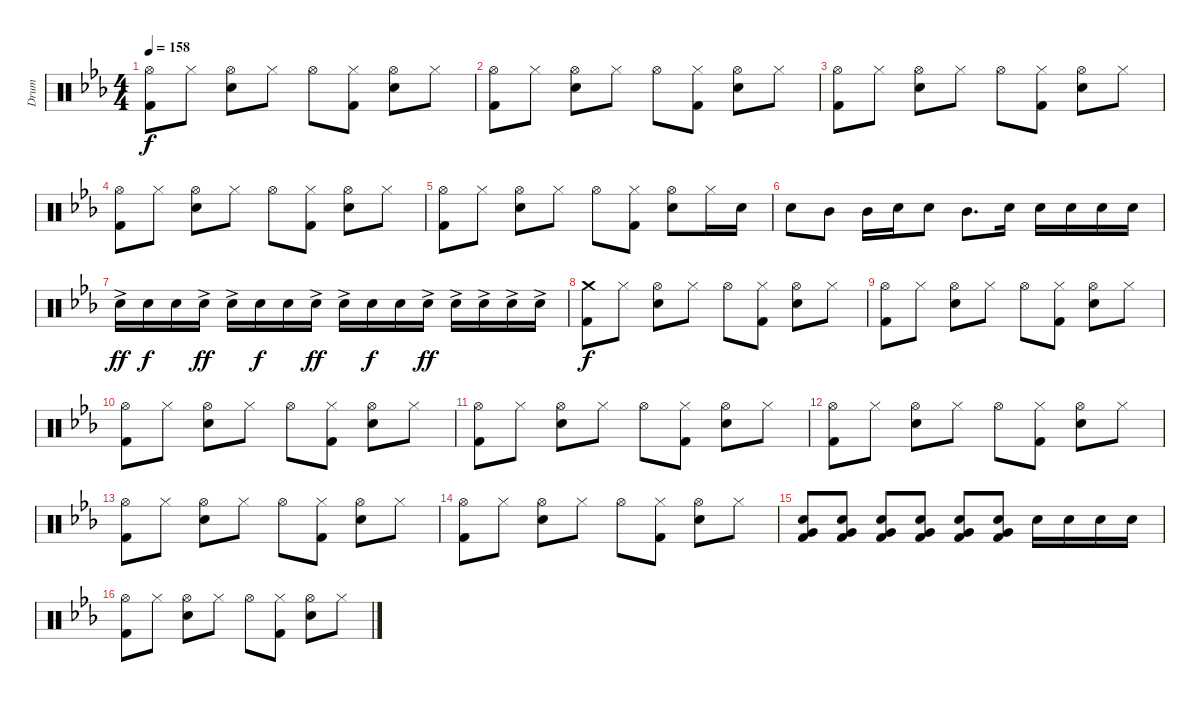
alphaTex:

\track ("Drum" "Drum") {instrument percussion}
\staff {score}
\articulation defaults
\ts (4 4)
\tempo 158
\clef neutral
\ks eb
("Hi-Hat (open)" "Kick (hit) 2").8{dy f} "Hi-Hat (closed)".8 ("Hi-Hat (open)" "Electric Snare (hit)").8 "Hi-Hat (closed)".8 "Hi-Hat (open)".8 ("Hi-Hat (closed)" "Kick (hit) 2").8 ("Hi-Hat (open)" "Electric Snare (hit)").8 "Hi-Hat (closed)".8 |
("Hi-Hat (open)" "Kick (hit) 2").8 "Hi-Hat (closed)".8 ("Hi-Hat (open)" "Electric Snare (hit)").8 "Hi-Hat (closed)".8 "Hi-Hat (open)".8 ("Hi-Hat (closed)" "Kick (hit) 2").8 ("Hi-Hat (open)" "Electric Snare (hit)").8 "Hi-Hat (closed)".8 |
("Hi-Hat (open)" "Kick (hit) 2").8 "Hi-Hat (closed)".8 ("Hi-Hat (open)" "Electric Snare (hit)").8 "Hi-Hat (closed)".8 "Hi-Hat (open)".8 ("Hi-Hat (closed)" "Kick (hit) 2").8 ("Hi-Hat (open)" "Electric Snare (hit)").8 "Hi-Hat (closed)".8 |
("Hi-Hat (open)" "Kick (hit) 2").8 "Hi-Hat (closed)".8 ("Hi-Hat (open)" "Electric Snare (hit)").8 "Hi-Hat (closed)".8 "Hi-Hat (open)".8 ("Hi-Hat (closed)" "Kick (hit) 2").8 ("Hi-Hat (open)" "Electric Snare (hit)").8 "Hi-Hat (closed)".8 |
("Hi-Hat (open)" "Kick (hit) 2").8 "Hi-Hat (closed)".8 ("Hi-Hat (open)" "Electric Snare (hit)").8 "Hi-Hat (closed)".8 "Hi-Hat (open)".8 ("Hi-Hat (closed)" "Kick (hit) 2").8 ("Hi-Hat (open)" "Electric Snare (hit)").8 "Hi-Hat (closed)".16 "Electric Snare (hit)".16 |
"Electric Snare (hit)".8 "Mid Tom (hit)".8 "Mid Tom (hit)".16 "Electric Snare (hit)".16 "Electric Snare (hit)".8 "Mid Tom (hit)".8{d} "Electric Snare (hit)".16 "Electric Snare (hit)".16 "Electric Snare (hit)".16 "Electric Snare (hit)".16 "Electric Snare (hit)".16 |
"Electric Snare (hit)"{ac}.16{dy ff} "Electric Snare (hit)".16{dy f} "Electric Snare (hit)".16 "Electric Snare (hit)"{ac}.16{dy ff} "Electric Snare (hit)"{ac}.16 "Electric Snare (hit)".16{dy f} "Electric Snare (hit)".16 "Electric Snare (hit)"{ac}.16{dy ff} "Electric Snare (hit)"{ac}.16 "Electric Snare (hit)".16{dy f} "Electric Snare (hit)".16 "Electric Snare (hit)"{ac}.16{dy ff} "Electric Snare (hit)"{ac}.16 "Electric Snare (hit)"{ac}.16 "Electric Snare (hit)"{ac}.16 "Electric Snare (hit)"{ac}.16 |
("Crash medium (hit)" "Kick (hit) 2").8{dy f} "Hi-Hat (closed)".8 ("Hi-Hat (open)" "Electric Snare (hit)").8 "Hi-Hat (closed)".8 "Hi-Hat (open)".8 ("Hi-Hat (closed)" "Kick (hit) 2").8 ("Hi-Hat (open)" "Electric Snare (hit)").8 "Hi-Hat (closed)".8 |
("Hi-Hat (open)" "Kick (hit) 2").8 "Hi-Hat (closed)".8 ("Hi-Hat (open)" "Electric Snare (hit)").8 "Hi-Hat (closed)".8 "Hi-Hat (open)".8 ("Hi-Hat (closed)" "Kick (hit) 2").8 ("Hi-Hat (open)" "Electric Snare (hit)").8 "Hi-Hat (closed)".8 |
("Hi-Hat (open)" "Kick (hit) 2").8 "Hi-Hat (closed)".8 ("Hi-Hat (open)" "Electric Snare (hit)").8 "Hi-Hat (closed)".8 "Hi-Hat (open)".8 ("Hi-Hat (closed)" "Kick (hit) 2").8 ("Hi-Hat (open)" "Electric Snare (hit)").8 "Hi-Hat (closed)".8 |
("Hi-Hat (open)" "Kick (hit) 2").8 "Hi-Hat (closed)".8 ("Hi-Hat (open)" "Electric Snare (hit)").8 "Hi-Hat (closed)".8 "Hi-Hat (open)".8 ("Hi-Hat (closed)" "Kick (hit) 2").8 ("Hi-Hat (open)" "Electric Snare (hit)").8 "Hi-Hat (closed)".8 |
("Hi-Hat (open)" "Kick (hit) 2").8 "Hi-Hat (closed)".8 ("Hi-Hat (open)" "Electric Snare (hit)").8 "Hi-Hat (closed)".8 "Hi-Hat (open)".8 ("Hi-Hat (closed)" "Kick (hit) 2").8 ("Hi-Hat (open)" "Electric Snare (hit)").8 "Hi-Hat (closed)".8 |
("Hi-Hat (open)" "Kick (hit) 2").8 "Hi-Hat (closed)".8 ("Hi-Hat (open)" "Electric Snare (hit)").8 "Hi-Hat (closed)".8 "Hi-Hat (open)".8 ("Hi-Hat (closed)" "Kick (hit) 2").8 ("Hi-Hat (open)" "Electric Snare (hit)").8 "Hi-Hat (closed)".8 |
("Hi-Hat (open)" "Kick (hit) 2").8 "Hi-Hat (closed)".8 ("Hi-Hat (open)" "Electric Snare (hit)").8 "Hi-Hat (closed)".8 "Hi-Hat (open)".8 ("Hi-Hat (closed)" "Kick (hit) 2").8 ("Hi-Hat (open)" "Electric Snare (hit)").8 "Hi-Hat (closed)".8 |
("Electric Snare (hit)" "Very Low Tom (hit)" "Kick (hit) 2").8 ("Electric Snare (hit)" "Very Low Tom (hit)" "Kick (hit) 2").8 ("Electric Snare (hit)" "Very Low Tom (hit)" "Kick (hit) 2").8 ("Electric Snare (hit)" "Very Low Tom (hit)" "Kick (hit) 2").8 ("Electric Snare (hit)" "Very Low Tom (hit)" "Kick (hit) 2").8 ("Electric Snare (hit)" "Very Low Tom (hit)" "Kick (hit) 2").8 "Electric Snare (hit)".16 "Electric Snare (hit)".16 "Electric Snare (hit)".16 "Electric Snare (hit)".16 |
("Hi-Hat (open)" "Kick (hit) 2").8 "Hi-Hat (closed)".8 ("Hi-Hat (open)" "Electric Snare (hit)").8 "Hi-Hat (closed)".8 "Hi-Hat (open)".8 ("Hi-Hat (closed)" "Kick (hit) 2").8 ("Hi-Hat (open)" "Electric Snare (hit)").8 "Hi-Hat (closed)".8
